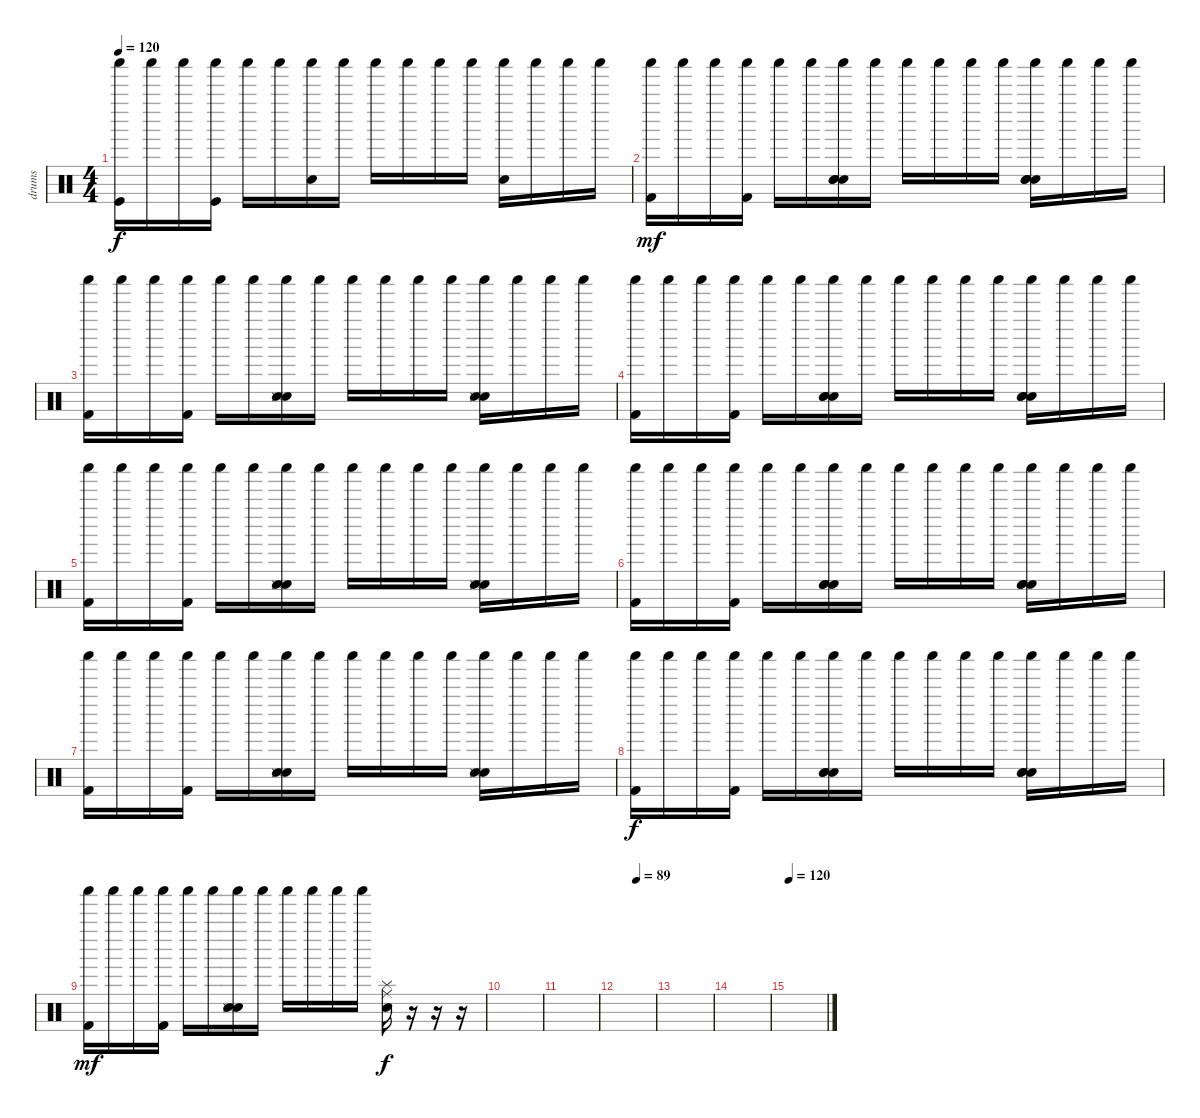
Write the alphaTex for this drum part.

\track ("drums" "drums") {instrument percussion}
\staff {score}
\articulation defaults
\ts (4 4)
\tempo 120
\clef neutral
\ks c
("Kick (hit)" "Shaker (hit)").16{dy f} "Shaker (hit)".16 "Shaker (hit)".16 ("Kick (hit)" "Shaker (hit)").16 "Shaker (hit)".16 "Shaker (hit)".16 ("Electric Snare (hit)" "Shaker (hit)").16 "Shaker (hit)".16 "Shaker (hit)".16 "Shaker (hit)".16 "Shaker (hit)".16 "Shaker (hit)".16 ("Electric Snare (hit)" "Shaker (hit)").16 "Shaker (hit)".16 "Shaker (hit)".16 "Shaker (hit)".16 |
("Kick (hit) 2" "Shaker (hit)").16{dy mf} "Shaker (hit)".16 "Shaker (hit)".16 ("Kick (hit) 2" "Shaker (hit)").16 "Shaker (hit)".16 "Shaker (hit)".16 ("Electric Snare (hit)" "Electric Snare (hit)" "Electric Snare (hit)" "Shaker (hit)").16 "Shaker (hit)".16 "Shaker (hit)".16 "Shaker (hit)".16 "Shaker (hit)".16 "Shaker (hit)".16 ("Electric Snare (hit)" "Electric Snare (hit)" "Electric Snare (hit)" "Shaker (hit)").16 "Shaker (hit)".16 "Shaker (hit)".16 "Shaker (hit)".16 |
("Kick (hit) 2" "Shaker (hit)").16 "Shaker (hit)".16 "Shaker (hit)".16 ("Kick (hit) 2" "Shaker (hit)").16 "Shaker (hit)".16 "Shaker (hit)".16 ("Electric Snare (hit)" "Snare (side stick) 3" "Electric Snare (hit)" "Shaker (hit)").16 "Shaker (hit)".16 "Shaker (hit)".16 "Shaker (hit)".16 "Shaker (hit)".16 "Shaker (hit)".16 ("Electric Snare (hit)" "Snare (side stick) 3" "Electric Snare (hit)" "Shaker (hit)").16 "Shaker (hit)".16 "Shaker (hit)".16 "Shaker (hit)".16 |
("Kick (hit) 2" "Shaker (hit)").16 "Shaker (hit)".16 "Shaker (hit)".16 ("Kick (hit) 2" "Shaker (hit)").16 "Shaker (hit)".16 "Shaker (hit)".16 ("Electric Snare (hit)" "Electric Snare (hit)" "Electric Snare (hit)" "Shaker (hit)").16 "Shaker (hit)".16 "Shaker (hit)".16 "Shaker (hit)".16 "Shaker (hit)".16 "Shaker (hit)".16 ("Electric Snare (hit)" "Electric Snare (hit)" "Electric Snare (hit)" "Shaker (hit)").16 "Shaker (hit)".16 "Shaker (hit)".16 "Shaker (hit)".16 |
("Kick (hit) 2" "Shaker (hit)").16 "Shaker (hit)".16 "Shaker (hit)".16 ("Kick (hit) 2" "Shaker (hit)").16 "Shaker (hit)".16 "Shaker (hit)".16 ("Electric Snare (hit)" "Snare (side stick) 3" "Electric Snare (hit)" "Shaker (hit)").16 "Shaker (hit)".16 "Shaker (hit)".16 "Shaker (hit)".16 "Shaker (hit)".16 "Shaker (hit)".16 ("Electric Snare (hit)" "Snare (side stick) 3" "Electric Snare (hit)" "Shaker (hit)").16 "Shaker (hit)".16 "Shaker (hit)".16 "Shaker (hit)".16 |
("Kick (hit) 2" "Shaker (hit)").16 "Shaker (hit)".16 "Shaker (hit)".16 ("Kick (hit) 2" "Shaker (hit)").16 "Shaker (hit)".16 "Shaker (hit)".16 ("Electric Snare (hit)" "Electric Snare (hit)" "Electric Snare (hit)" "Shaker (hit)").16 "Shaker (hit)".16 "Shaker (hit)".16 "Shaker (hit)".16 "Shaker (hit)".16 "Shaker (hit)".16 ("Electric Snare (hit)" "Electric Snare (hit)" "Electric Snare (hit)" "Shaker (hit)").16 "Shaker (hit)".16 "Shaker (hit)".16 "Shaker (hit)".16 |
("Kick (hit) 2" "Shaker (hit)").16 "Shaker (hit)".16 "Shaker (hit)".16 ("Kick (hit) 2" "Shaker (hit)").16 "Shaker (hit)".16 "Shaker (hit)".16 ("Electric Snare (hit)" "Snare (side stick) 3" "Electric Snare (hit)" "Shaker (hit)").16 "Shaker (hit)".16 "Shaker (hit)".16 "Shaker (hit)".16 "Shaker (hit)".16 "Shaker (hit)".16 ("Electric Snare (hit)" "Snare (side stick) 3" "Electric Snare (hit)" "Shaker (hit)").16 "Shaker (hit)".16 "Shaker (hit)".16 "Shaker (hit)".16 |
("Kick (hit) 2" "Shaker (hit)").16{dy f} "Shaker (hit)".16 "Shaker (hit)".16 ("Kick (hit) 2" "Shaker (hit)").16 "Shaker (hit)".16 "Shaker (hit)".16 ("Electric Snare (hit)" "Electric Snare (hit)" "Electric Snare (hit)" "Shaker (hit)").16 "Shaker (hit)".16 "Shaker (hit)".16 "Shaker (hit)".16 "Shaker (hit)".16 "Shaker (hit)".16 ("Electric Snare (hit)" "Electric Snare (hit)" "Electric Snare (hit)" "Shaker (hit)").16 "Shaker (hit)".16 "Shaker (hit)".16 "Shaker (hit)".16 |
("Kick (hit) 2" "Shaker (hit)").16{dy mf} "Shaker (hit)".16 "Shaker (hit)".16 ("Kick (hit) 2" "Shaker (hit)").16 "Shaker (hit)".16 "Shaker (hit)".16 ("Electric Snare (hit)" "Snare (side stick) 3" "Electric Snare (hit)" "Shaker (hit)").16 "Shaker (hit)".16 "Shaker (hit)".16 "Shaker (hit)".16 "Shaker (hit)".16 "Shaker (hit)".16 ("Ride (middle)" "Splash (hit)" "Electric Snare (hit)").16{dy f} r.16 r.16 r.16 |
|
|
\tempo (89 0.5)
|
|
|
\tempo 120
